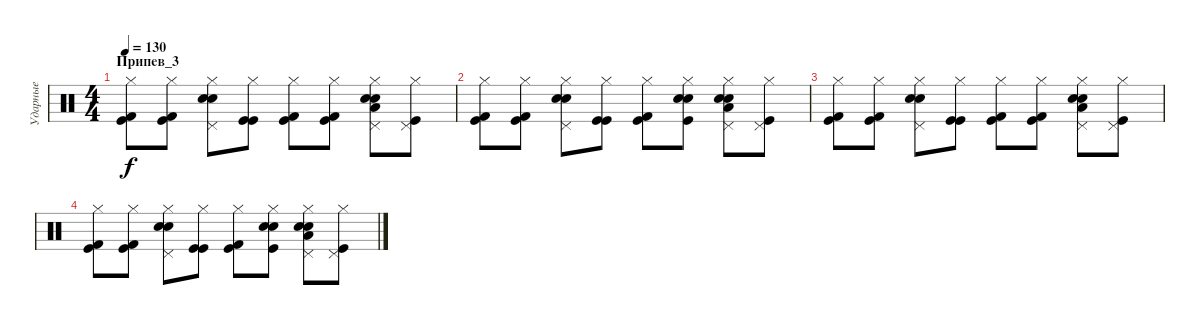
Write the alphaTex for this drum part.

\track ("Ударные" "Ударные") {instrument percussion}
\staff {score}
\articulation defaults
\ts (4 4)
\section ("" "Припев_3")
\tempo 130
\clef neutral
\ks c
("Kick (hit)" "Kick (hit) 2" "Hi-Hat (closed)").8{dy f} ("Kick (hit)" "Kick (hit) 2" "Hi-Hat (closed)").8 ("Electric Snare (hit)" "Pedal Hi-Hat (hit)" "Hi-Hat (closed)" "Snare (hit) 2").8 ("Kick (hit)" "Kick (hit)" "Hi-Hat (closed)").8 ("Kick (hit)" "Kick (hit) 2" "Hi-Hat (closed)").8 ("Kick (hit)" "Kick (hit) 2" "Hi-Hat (closed)").8 ("Low Tom (hit)" "Electric Snare (hit)" "Pedal Hi-Hat (hit)" "Hi-Hat (closed)" "Snare (hit) 2").8 ("Pedal Hi-Hat (hit)" "Kick (hit)" "Hi-Hat (closed)").8 |
("Kick (hit)" "Kick (hit) 2" "Hi-Hat (closed)").8 ("Kick (hit)" "Kick (hit) 2" "Hi-Hat (closed)").8 ("Snare (hit) 2" "Electric Snare (hit)" "Pedal Hi-Hat (hit)" "Hi-Hat (closed)").8 ("Kick (hit)" "Kick (hit)" "Hi-Hat (closed)").8 ("Kick (hit)" "Kick (hit) 2" "Hi-Hat (closed)").8 ("Kick (hit)" "Electric Snare (hit)" "Hi-Hat (closed)" "Snare (hit) 2").8 ("Low Tom (hit)" "Electric Snare (hit)" "Pedal Hi-Hat (hit)" "Hi-Hat (closed)" "Snare (hit) 2").8 ("Pedal Hi-Hat (hit)" "Kick (hit)" "Hi-Hat (closed)").8 |
("Kick (hit)" "Kick (hit) 2" "Hi-Hat (closed)").8 ("Kick (hit)" "Kick (hit) 2" "Hi-Hat (closed)").8 ("Electric Snare (hit)" "Pedal Hi-Hat (hit)" "Hi-Hat (closed)" "Snare (hit) 2").8 ("Kick (hit)" "Kick (hit)" "Hi-Hat (closed)").8 ("Kick (hit)" "Kick (hit) 2" "Hi-Hat (closed)").8 ("Kick (hit)" "Kick (hit) 2" "Hi-Hat (closed)").8 ("Low Tom (hit)" "Electric Snare (hit)" "Pedal Hi-Hat (hit)" "Hi-Hat (closed)" "Snare (hit) 2").8 ("Pedal Hi-Hat (hit)" "Kick (hit)" "Hi-Hat (closed)").8 |
("Kick (hit)" "Kick (hit) 2" "Hi-Hat (closed)").8 ("Kick (hit)" "Kick (hit) 2" "Hi-Hat (closed)").8 ("Snare (hit) 2" "Electric Snare (hit)" "Pedal Hi-Hat (hit)" "Hi-Hat (closed)").8 ("Kick (hit)" "Kick (hit)" "Hi-Hat (closed)").8 ("Kick (hit)" "Kick (hit) 2" "Hi-Hat (closed)").8 ("Kick (hit)" "Electric Snare (hit)" "Hi-Hat (closed)" "Snare (hit) 2").8 ("Low Tom (hit)" "Electric Snare (hit)" "Pedal Hi-Hat (hit)" "Hi-Hat (closed)" "Snare (hit) 2").8 ("Pedal Hi-Hat (hit)" "Kick (hit)" "Hi-Hat (closed)").8
